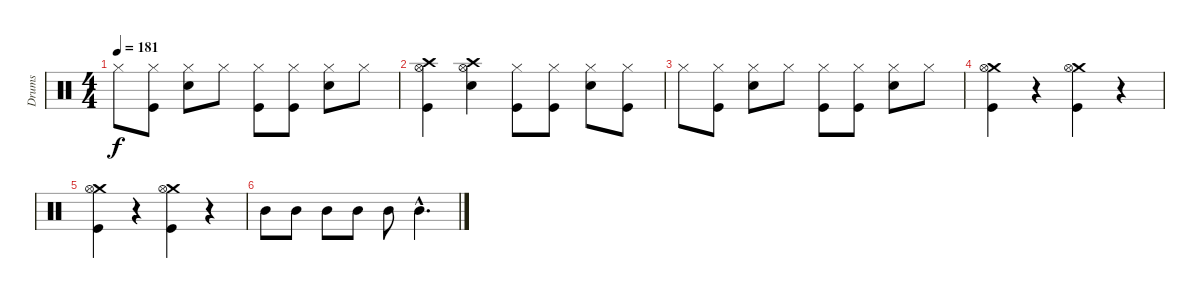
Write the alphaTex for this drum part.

\track ("Drums" "Drums") {instrument percussion}
\staff {score}
\articulation defaults
\ts (4 4)
\tempo 181
\clef neutral
\ks c "Hi-Hat (closed)".8{dy f}
("Hi-Hat (closed)" "Kick (hit)").8 ("Hi-Hat (closed)" "Snare (hit) 2").8 "Hi-Hat (closed)".8 ("Hi-Hat (closed)" "Kick (hit)").8 ("Hi-Hat (closed)" "Kick (hit)").8 ("Hi-Hat (closed)" "Snare (hit) 2").8 "Hi-Hat (closed)".8 |
("Crash high (hit)" "Hi-Hat (open)" "Kick (hit)").4 ("Crash high (hit)" "Hi-Hat (open)" "Snare (hit) 2").4 ("Hi-Hat (closed)" "Kick (hit)").8 ("Hi-Hat (closed)" "Kick (hit)").8 ("Hi-Hat (closed)" "Snare (hit) 2").8 ("Hi-Hat (closed)" "Kick (hit)").8 |
"Hi-Hat (closed)".8 ("Hi-Hat (closed)" "Kick (hit)").8 ("Hi-Hat (closed)" "Snare (hit) 2").8 "Hi-Hat (closed)".8 ("Hi-Hat (closed)" "Kick (hit)").8 ("Hi-Hat (closed)" "Kick (hit)").8 ("Hi-Hat (closed)" "Snare (hit) 2").8 "Hi-Hat (closed)".8 |
("Crash medium (hit)" "Hi-Hat (open)" "Kick (hit)").4 r.4 ("Crash medium (hit)" "Hi-Hat (open)" "Kick (hit)").4 r.4 |
("Crash medium (hit)" "Hi-Hat (open)" "Kick (hit)").4 r.4 ("Crash medium (hit)" "Hi-Hat (open)" "Kick (hit)").4 r.4 |
"Mid Tom (hit)".8 "Mid Tom (hit)".8 "Mid Tom (hit)".8 "Mid Tom (hit)".8 "Mid Tom (hit)".8 "Mid Tom (hit)"{hac}.4{d}
